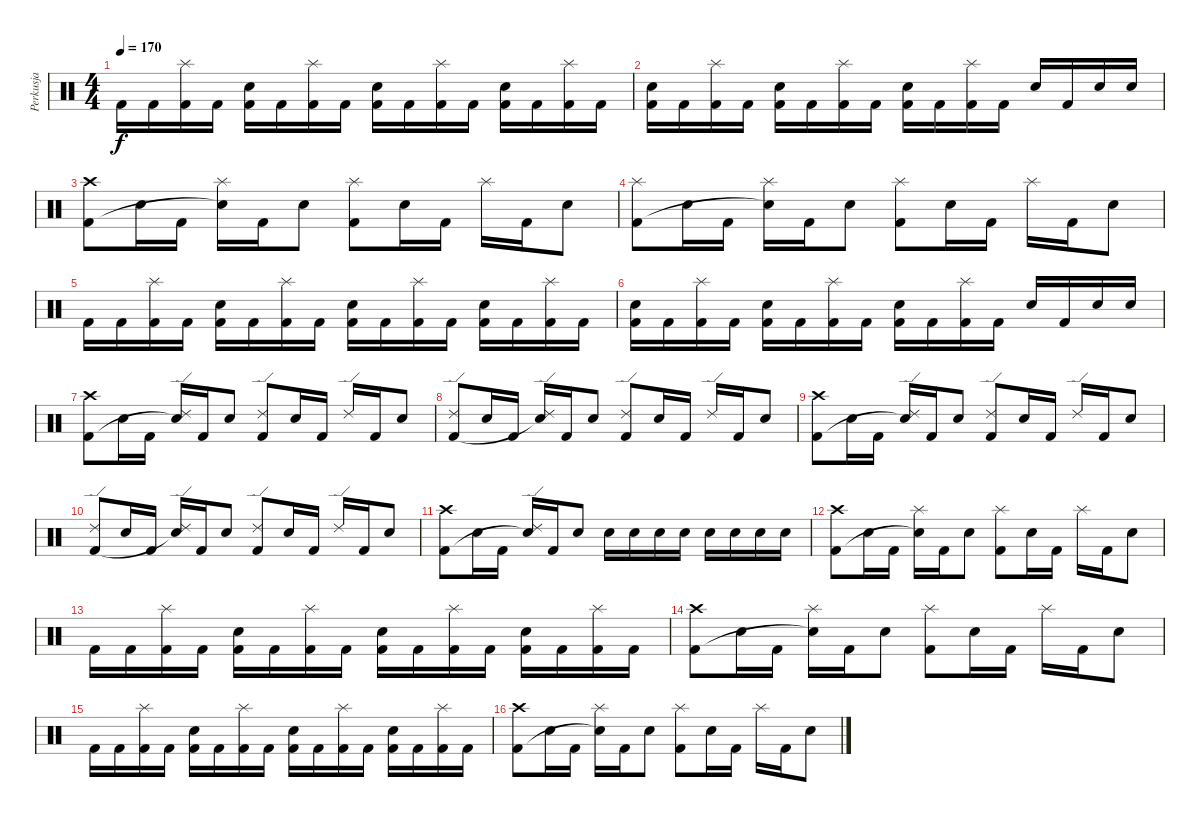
\track ("Perkusja" "Perkusja") {instrument percussion}
\staff {score}
\articulation defaults
\ts (4 4)
\tempo 170
\clef neutral
\ks c "Kick (hit) 2".16{dy f} "Kick (hit) 2".16
("Splash (hit)" "Kick (hit) 2").16 "Kick (hit) 2".16 ("Snare (hit) 2" "Kick (hit) 2").16 "Kick (hit) 2".16 ("Splash (hit)" "Kick (hit) 2").16 "Kick (hit) 2".16 ("Snare (hit) 2" "Kick (hit) 2").16 "Kick (hit) 2".16 ("Splash (hit)" "Kick (hit) 2").16 "Kick (hit) 2".16 ("Snare (hit) 2" "Kick (hit) 2").16 "Kick (hit) 2".16 ("Splash (hit)" "Kick (hit) 2").16 "Kick (hit) 2".16 |
("Snare (hit) 2" "Kick (hit) 2").16 "Kick (hit) 2".16 ("Splash (hit)" "Kick (hit) 2").16 "Kick (hit) 2".16 ("Snare (hit) 2" "Kick (hit) 2").16 "Kick (hit) 2".16 ("Splash (hit)" "Kick (hit) 2").16 "Kick (hit) 2".16 ("Snare (hit) 2" "Kick (hit) 2").16 "Kick (hit) 2".16 ("Splash (hit)" "Kick (hit) 2").16 "Kick (hit) 2".16 "Snare (hit) 2".16 "Kick (hit) 2".16 "Snare (hit) 2".16 "Snare (hit) 2".16 |
("Crash high (hit)" "Kick (hit) 2").8 "Snare (hit) 2".16 "Kick (hit) 2".16 ("Splash (hit)" "Snare (hit)"{t}).16 "Kick (hit) 2".16 "Snare (hit) 2".8 ("Splash (hit)" "Kick (hit) 2").8 "Snare (hit) 2".16 "Kick (hit) 2".16 "Splash (hit)".16 "Kick (hit) 2".16 "Snare (hit) 2".8 |
("Splash (hit)" "Kick (hit) 2").8 "Snare (hit) 2".16 "Kick (hit) 2".16 ("Splash (hit)" "Snare (hit)"{t}).16 "Kick (hit) 2".16 "Snare (hit) 2".8 ("Splash (hit)" "Kick (hit) 2").8 "Snare (hit) 2".16 "Kick (hit) 2".16 "Splash (hit)".16 "Kick (hit) 2".16 "Snare (hit) 2".8 |
"Kick (hit) 2".16 "Kick (hit) 2".16 ("Splash (hit)" "Kick (hit) 2").16 "Kick (hit) 2".16 ("Snare (hit) 2" "Kick (hit) 2").16 "Kick (hit) 2".16 ("Splash (hit)" "Kick (hit) 2").16 "Kick (hit) 2".16 ("Snare (hit) 2" "Kick (hit) 2").16 "Kick (hit) 2".16 ("Splash (hit)" "Kick (hit) 2").16 "Kick (hit) 2".16 ("Snare (hit) 2" "Kick (hit) 2").16 "Kick (hit) 2".16 ("Splash (hit)" "Kick (hit) 2").16 "Kick (hit) 2".16 |
("Snare (hit) 2" "Kick (hit) 2").16 "Kick (hit) 2".16 ("Splash (hit)" "Kick (hit) 2").16 "Kick (hit) 2".16 ("Snare (hit) 2" "Kick (hit) 2").16 "Kick (hit) 2".16 ("Splash (hit)" "Kick (hit) 2").16 "Kick (hit) 2".16 ("Snare (hit) 2" "Kick (hit) 2").16 "Kick (hit) 2".16 ("Splash (hit)" "Kick (hit) 2").16 "Kick (hit) 2".16 "Snare (hit) 2".16 "Kick (hit) 2".16 "Snare (hit) 2".16 "Snare (hit) 2".16 |
("Crash high (hit)" "Kick (hit) 2").8 "Snare (hit) 2".16 "Kick (hit) 2".16 ("Ride (edge) 2" "Snare (hit)"{t}).16 "Kick (hit) 2".16 "Snare (hit) 2".8 ("Ride (edge) 2" "Kick (hit) 2").8 "Snare (hit) 2".16 "Kick (hit) 2".16 "Ride (edge) 2".16 "Kick (hit) 2".16 "Snare (hit) 2".8 |
("Ride (edge) 2" "Kick (hit) 2").8 "Snare (hit) 2".16 "Kick (hit) 2".16 ("Ride (edge) 2" "Snare (hit)"{t}).16 "Kick (hit) 2".16 "Snare (hit) 2".8 ("Ride (edge) 2" "Kick (hit) 2").8 "Snare (hit) 2".16 "Kick (hit) 2".16 "Ride (edge) 2".16 "Kick (hit) 2".16 "Snare (hit) 2".8 |
("Crash high (hit)" "Kick (hit) 2").8 "Snare (hit) 2".16 "Kick (hit) 2".16 ("Ride (edge) 2" "Snare (hit)"{t}).16 "Kick (hit) 2".16 "Snare (hit) 2".8 ("Ride (edge) 2" "Kick (hit) 2").8 "Snare (hit) 2".16 "Kick (hit) 2".16 "Ride (edge) 2".16 "Kick (hit) 2".16 "Snare (hit) 2".8 |
("Ride (edge) 2" "Kick (hit) 2").8 "Snare (hit) 2".16 "Kick (hit) 2".16 ("Ride (edge) 2" "Snare (hit)"{t}).16 "Kick (hit) 2".16 "Snare (hit) 2".8 ("Ride (edge) 2" "Kick (hit) 2").8 "Snare (hit) 2".16 "Kick (hit) 2".16 "Ride (edge) 2".16 "Kick (hit) 2".16 "Snare (hit) 2".8 |
("Crash high (hit)" "Kick (hit) 2").8 "Snare (hit) 2".16 "Kick (hit) 2".16 ("Ride (edge) 2" "Snare (hit)"{t}).16 "Kick (hit) 2".16 "Snare (hit) 2".8 "Snare (hit) 2".16 "Snare (hit) 2".16 "Snare (hit) 2".16 "Snare (hit) 2".16 "Snare (hit) 2".16 "Snare (hit) 2".16 "Snare (hit) 2".16 "Snare (hit) 2".16 |
("Crash high (hit)" "Kick (hit) 2").8 "Snare (hit) 2".16 "Kick (hit) 2".16 ("Splash (hit)" "Snare (hit)"{t}).16 "Kick (hit) 2".16 "Snare (hit) 2".8 ("Splash (hit)" "Kick (hit) 2").8 "Snare (hit) 2".16 "Kick (hit) 2".16 "Splash (hit)".16 "Kick (hit) 2".16 "Snare (hit) 2".8 |
"Kick (hit) 2".16 "Kick (hit) 2".16 ("Splash (hit)" "Kick (hit) 2").16 "Kick (hit) 2".16 ("Snare (hit) 2" "Kick (hit) 2").16 "Kick (hit) 2".16 ("Splash (hit)" "Kick (hit) 2").16 "Kick (hit) 2".16 ("Snare (hit) 2" "Kick (hit) 2").16 "Kick (hit) 2".16 ("Splash (hit)" "Kick (hit) 2").16 "Kick (hit) 2".16 ("Snare (hit) 2" "Kick (hit) 2").16 "Kick (hit) 2".16 ("Splash (hit)" "Kick (hit) 2").16 "Kick (hit) 2".16 |
("Crash high (hit)" "Kick (hit) 2").8 "Snare (hit) 2".16 "Kick (hit) 2".16 ("Splash (hit)" "Snare (hit)"{t}).16 "Kick (hit) 2".16 "Snare (hit) 2".8 ("Splash (hit)" "Kick (hit) 2").8 "Snare (hit) 2".16 "Kick (hit) 2".16 "Splash (hit)".16 "Kick (hit) 2".16 "Snare (hit) 2".8 |
"Kick (hit) 2".16 "Kick (hit) 2".16 ("Splash (hit)" "Kick (hit) 2").16 "Kick (hit) 2".16 ("Snare (hit) 2" "Kick (hit) 2").16 "Kick (hit) 2".16 ("Splash (hit)" "Kick (hit) 2").16 "Kick (hit) 2".16 ("Snare (hit) 2" "Kick (hit) 2").16 "Kick (hit) 2".16 ("Splash (hit)" "Kick (hit) 2").16 "Kick (hit) 2".16 ("Snare (hit) 2" "Kick (hit) 2").16 "Kick (hit) 2".16 ("Splash (hit)" "Kick (hit) 2").16 "Kick (hit) 2".16 |
("Crash high (hit)" "Kick (hit) 2").8 "Snare (hit) 2".16 "Kick (hit) 2".16 ("Splash (hit)" "Snare (hit)"{t}).16 "Kick (hit) 2".16 "Snare (hit) 2".8 ("Splash (hit)" "Kick (hit) 2").8 "Snare (hit) 2".16 "Kick (hit) 2".16 "Splash (hit)".16 "Kick (hit) 2".16 "Snare (hit) 2".8
